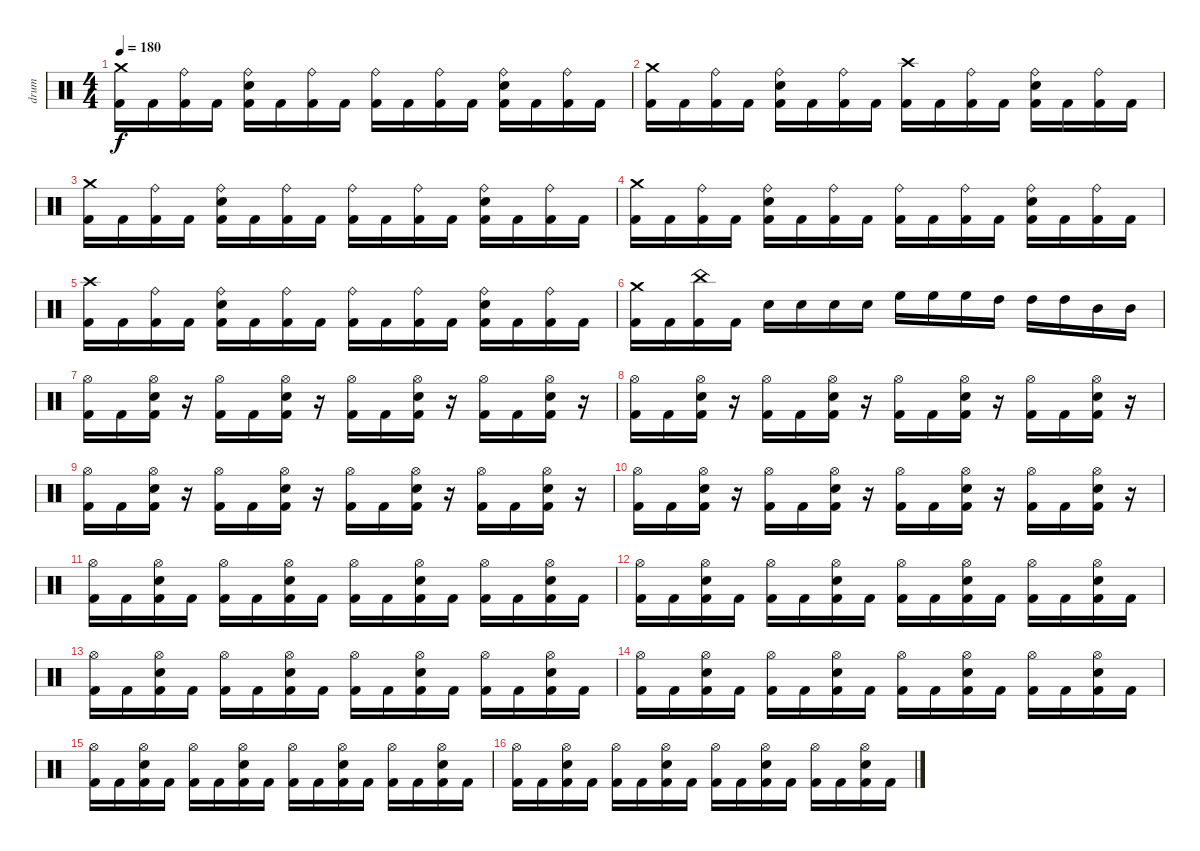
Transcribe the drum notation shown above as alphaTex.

\track ("drum" "drum") {instrument percussion}
\staff {score}
\articulation defaults
\ts (4 4)
\tempo 180
\clef neutral
\ks c
("Crash medium (hit)" "Kick (hit) 2").16{dy f} "Kick (hit) 2".16 ("Ride (bell)" "Kick (hit) 2").16 "Kick (hit) 2".16 ("Ride (bell)" "Electric Snare (hit)" "Kick (hit) 2").16 "Kick (hit) 2".16 ("Ride (bell)" "Kick (hit) 2").16 "Kick (hit) 2".16 ("Ride (bell)" "Kick (hit) 2").16 "Kick (hit) 2".16 ("Ride (bell)" "Kick (hit) 2").16 "Kick (hit) 2".16 ("Ride (bell)" "Electric Snare (hit)" "Kick (hit) 2").16 "Kick (hit) 2".16 ("Ride (bell)" "Kick (hit) 2").16 "Kick (hit) 2".16 |
("Crash medium (hit)" "Kick (hit) 2").16 "Kick (hit) 2".16 ("Ride (bell)" "Kick (hit) 2").16 "Kick (hit) 2".16 ("Ride (bell)" "Electric Snare (hit)" "Kick (hit) 2").16 "Kick (hit) 2".16 ("Ride (bell)" "Kick (hit) 2").16 "Kick (hit) 2".16 ("Crash high (hit)" "Kick (hit) 2").16 "Kick (hit) 2".16 ("Ride (bell)" "Kick (hit) 2").16 "Kick (hit) 2".16 ("Ride (bell)" "Electric Snare (hit)" "Kick (hit) 2").16 "Kick (hit) 2".16 ("Ride (bell)" "Kick (hit) 2").16 "Kick (hit) 2".16 |
("Crash medium (hit)" "Kick (hit) 2").16 "Kick (hit) 2".16 ("Ride (bell)" "Kick (hit) 2").16 "Kick (hit) 2".16 ("Ride (bell)" "Electric Snare (hit)" "Kick (hit) 2").16 "Kick (hit) 2".16 ("Ride (bell)" "Kick (hit) 2").16 "Kick (hit) 2".16 ("Ride (bell)" "Kick (hit) 2").16 "Kick (hit) 2".16 ("Ride (bell)" "Kick (hit) 2").16 "Kick (hit) 2".16 ("Ride (bell)" "Electric Snare (hit)" "Kick (hit) 2").16 "Kick (hit) 2".16 ("Ride (bell)" "Kick (hit) 2").16 "Kick (hit) 2".16 |
("Crash medium (hit)" "Kick (hit) 2").16 "Kick (hit) 2".16 ("Ride (bell)" "Kick (hit) 2").16 "Kick (hit) 2".16 ("Ride (bell)" "Electric Snare (hit)" "Kick (hit) 2").16 "Kick (hit) 2".16 ("Ride (bell)" "Kick (hit) 2").16 "Kick (hit) 2".16 ("Ride (bell)" "Kick (hit) 2").16 "Kick (hit) 2".16 ("Ride (bell)" "Kick (hit) 2").16 "Kick (hit) 2".16 ("Ride (bell)" "Electric Snare (hit)" "Kick (hit) 2").16 "Kick (hit) 2".16 ("Ride (bell)" "Kick (hit) 2").16 "Kick (hit) 2".16 |
("Crash high (hit)" "Kick (hit) 2").16 "Kick (hit) 2".16 ("Ride (bell)" "Kick (hit) 2").16 "Kick (hit) 2".16 ("Ride (bell)" "Electric Snare (hit)" "Kick (hit) 2").16 "Kick (hit) 2".16 ("Ride (bell)" "Kick (hit) 2").16 "Kick (hit) 2".16 ("Ride (bell)" "Kick (hit) 2").16 "Kick (hit) 2".16 ("Ride (bell)" "Kick (hit) 2").16 "Kick (hit) 2".16 ("Ride (bell)" "Electric Snare (hit)" "Kick (hit) 2").16 "Kick (hit) 2".16 ("Ride (bell)" "Kick (hit) 2").16 "Kick (hit) 2".16 |
("Crash medium (hit)" "Kick (hit) 2").16 "Kick (hit) 2".16 ("China (hit)" "Kick (hit) 2").16 "Kick (hit) 2".16 "Electric Snare (hit)".16 "Electric Snare (hit)".16 "Electric Snare (hit)".16 "Electric Snare (hit)".16 "High Floor Tom (hit)".16 "High Floor Tom (hit)".16 "High Floor Tom (hit)".16 "High Tom (hit)".16 "High Tom (hit)".16 "High Tom (hit)".16 "Mid Tom (hit)".16 "Mid Tom (hit)".16 |
("Hi-Hat (open)" "Kick (hit) 2").16 "Kick (hit) 2".16 ("Hi-Hat (open)" "Electric Snare (hit)" "Kick (hit) 2").16 r.16 ("Hi-Hat (open)" "Kick (hit) 2").16 "Kick (hit) 2".16 ("Hi-Hat (open)" "Electric Snare (hit)" "Kick (hit) 2").16 r.16 ("Hi-Hat (open)" "Kick (hit) 2").16 "Kick (hit) 2".16 ("Hi-Hat (open)" "Electric Snare (hit)" "Kick (hit) 2").16 r.16 ("Hi-Hat (open)" "Kick (hit) 2").16 "Kick (hit) 2".16 ("Hi-Hat (open)" "Electric Snare (hit)" "Kick (hit) 2").16 r.16 |
("Hi-Hat (open)" "Kick (hit) 2").16 "Kick (hit) 2".16 ("Hi-Hat (open)" "Electric Snare (hit)" "Kick (hit) 2").16 r.16 ("Hi-Hat (open)" "Kick (hit) 2").16 "Kick (hit) 2".16 ("Hi-Hat (open)" "Electric Snare (hit)" "Kick (hit) 2").16 r.16 ("Hi-Hat (open)" "Kick (hit) 2").16 "Kick (hit) 2".16 ("Hi-Hat (open)" "Electric Snare (hit)" "Kick (hit) 2").16 r.16 ("Hi-Hat (open)" "Kick (hit) 2").16 "Kick (hit) 2".16 ("Hi-Hat (open)" "Electric Snare (hit)" "Kick (hit) 2").16 r.16 |
("Hi-Hat (open)" "Kick (hit) 2").16 "Kick (hit) 2".16 ("Hi-Hat (open)" "Electric Snare (hit)" "Kick (hit) 2").16 r.16 ("Hi-Hat (open)" "Kick (hit) 2").16 "Kick (hit) 2".16 ("Hi-Hat (open)" "Electric Snare (hit)" "Kick (hit) 2").16 r.16 ("Hi-Hat (open)" "Kick (hit) 2").16 "Kick (hit) 2".16 ("Hi-Hat (open)" "Electric Snare (hit)" "Kick (hit) 2").16 r.16 ("Hi-Hat (open)" "Kick (hit) 2").16 "Kick (hit) 2".16 ("Hi-Hat (open)" "Electric Snare (hit)" "Kick (hit) 2").16 r.16 |
("Hi-Hat (open)" "Kick (hit) 2").16 "Kick (hit) 2".16 ("Hi-Hat (open)" "Electric Snare (hit)" "Kick (hit) 2").16 r.16 ("Hi-Hat (open)" "Kick (hit) 2").16 "Kick (hit) 2".16 ("Hi-Hat (open)" "Electric Snare (hit)" "Kick (hit) 2").16 r.16 ("Hi-Hat (open)" "Kick (hit) 2").16 "Kick (hit) 2".16 ("Hi-Hat (open)" "Electric Snare (hit)" "Kick (hit) 2").16 r.16 ("Hi-Hat (open)" "Kick (hit) 2").16 "Kick (hit) 2".16 ("Hi-Hat (open)" "Electric Snare (hit)" "Kick (hit) 2").16 r.16 |
("Hi-Hat (open)" "Kick (hit) 2").16 "Kick (hit) 2".16 ("Hi-Hat (open)" "Electric Snare (hit)" "Kick (hit) 2").16 "Kick (hit) 2".16 ("Hi-Hat (open)" "Kick (hit) 2").16 "Kick (hit) 2".16 ("Hi-Hat (open)" "Electric Snare (hit)" "Kick (hit) 2").16 "Kick (hit) 2".16 ("Hi-Hat (open)" "Kick (hit) 2").16 "Kick (hit) 2".16 ("Hi-Hat (open)" "Electric Snare (hit)" "Kick (hit) 2").16 "Kick (hit) 2".16 ("Hi-Hat (open)" "Kick (hit) 2").16 "Kick (hit) 2".16 ("Hi-Hat (open)" "Electric Snare (hit)" "Kick (hit) 2").16 "Kick (hit) 2".16 |
("Hi-Hat (open)" "Kick (hit) 2").16 "Kick (hit) 2".16 ("Hi-Hat (open)" "Electric Snare (hit)" "Kick (hit) 2").16 "Kick (hit) 2".16 ("Hi-Hat (open)" "Kick (hit) 2").16 "Kick (hit) 2".16 ("Hi-Hat (open)" "Electric Snare (hit)" "Kick (hit) 2").16 "Kick (hit) 2".16 ("Hi-Hat (open)" "Kick (hit) 2").16 "Kick (hit) 2".16 ("Hi-Hat (open)" "Electric Snare (hit)" "Kick (hit) 2").16 "Kick (hit) 2".16 ("Hi-Hat (open)" "Kick (hit) 2").16 "Kick (hit) 2".16 ("Hi-Hat (open)" "Electric Snare (hit)" "Kick (hit) 2").16 "Kick (hit) 2".16 |
("Hi-Hat (open)" "Kick (hit) 2").16 "Kick (hit) 2".16 ("Hi-Hat (open)" "Electric Snare (hit)" "Kick (hit) 2").16 "Kick (hit) 2".16 ("Hi-Hat (open)" "Kick (hit) 2").16 "Kick (hit) 2".16 ("Hi-Hat (open)" "Electric Snare (hit)" "Kick (hit) 2").16 "Kick (hit) 2".16 ("Hi-Hat (open)" "Kick (hit) 2").16 "Kick (hit) 2".16 ("Hi-Hat (open)" "Electric Snare (hit)" "Kick (hit) 2").16 "Kick (hit) 2".16 ("Hi-Hat (open)" "Kick (hit) 2").16 "Kick (hit) 2".16 ("Hi-Hat (open)" "Electric Snare (hit)" "Kick (hit) 2").16 "Kick (hit) 2".16 |
("Hi-Hat (open)" "Kick (hit) 2").16 "Kick (hit) 2".16 ("Hi-Hat (open)" "Electric Snare (hit)" "Kick (hit) 2").16 "Kick (hit) 2".16 ("Hi-Hat (open)" "Kick (hit) 2").16 "Kick (hit) 2".16 ("Hi-Hat (open)" "Electric Snare (hit)" "Kick (hit) 2").16 "Kick (hit) 2".16 ("Hi-Hat (open)" "Kick (hit) 2").16 "Kick (hit) 2".16 ("Hi-Hat (open)" "Electric Snare (hit)" "Kick (hit) 2").16 "Kick (hit) 2".16 ("Hi-Hat (open)" "Kick (hit) 2").16 "Kick (hit) 2".16 ("Hi-Hat (open)" "Electric Snare (hit)" "Kick (hit) 2").16 "Kick (hit) 2".16 |
("Hi-Hat (open)" "Kick (hit) 2").16 "Kick (hit) 2".16 ("Hi-Hat (open)" "Electric Snare (hit)" "Kick (hit) 2").16 "Kick (hit) 2".16 ("Hi-Hat (open)" "Kick (hit) 2").16 "Kick (hit) 2".16 ("Hi-Hat (open)" "Electric Snare (hit)" "Kick (hit) 2").16 "Kick (hit) 2".16 ("Hi-Hat (open)" "Kick (hit) 2").16 "Kick (hit) 2".16 ("Hi-Hat (open)" "Electric Snare (hit)" "Kick (hit) 2").16 "Kick (hit) 2".16 ("Hi-Hat (open)" "Kick (hit) 2").16 "Kick (hit) 2".16 ("Hi-Hat (open)" "Electric Snare (hit)" "Kick (hit) 2").16 "Kick (hit) 2".16 |
("Hi-Hat (open)" "Kick (hit) 2").16 "Kick (hit) 2".16 ("Hi-Hat (open)" "Electric Snare (hit)" "Kick (hit) 2").16 "Kick (hit) 2".16 ("Hi-Hat (open)" "Kick (hit) 2").16 "Kick (hit) 2".16 ("Hi-Hat (open)" "Electric Snare (hit)" "Kick (hit) 2").16 "Kick (hit) 2".16 ("Hi-Hat (open)" "Kick (hit) 2").16 "Kick (hit) 2".16 ("Hi-Hat (open)" "Electric Snare (hit)" "Kick (hit) 2").16 "Kick (hit) 2".16 ("Hi-Hat (open)" "Kick (hit) 2").16 "Kick (hit) 2".16 ("Hi-Hat (open)" "Electric Snare (hit)" "Kick (hit) 2").16 "Kick (hit) 2".16
